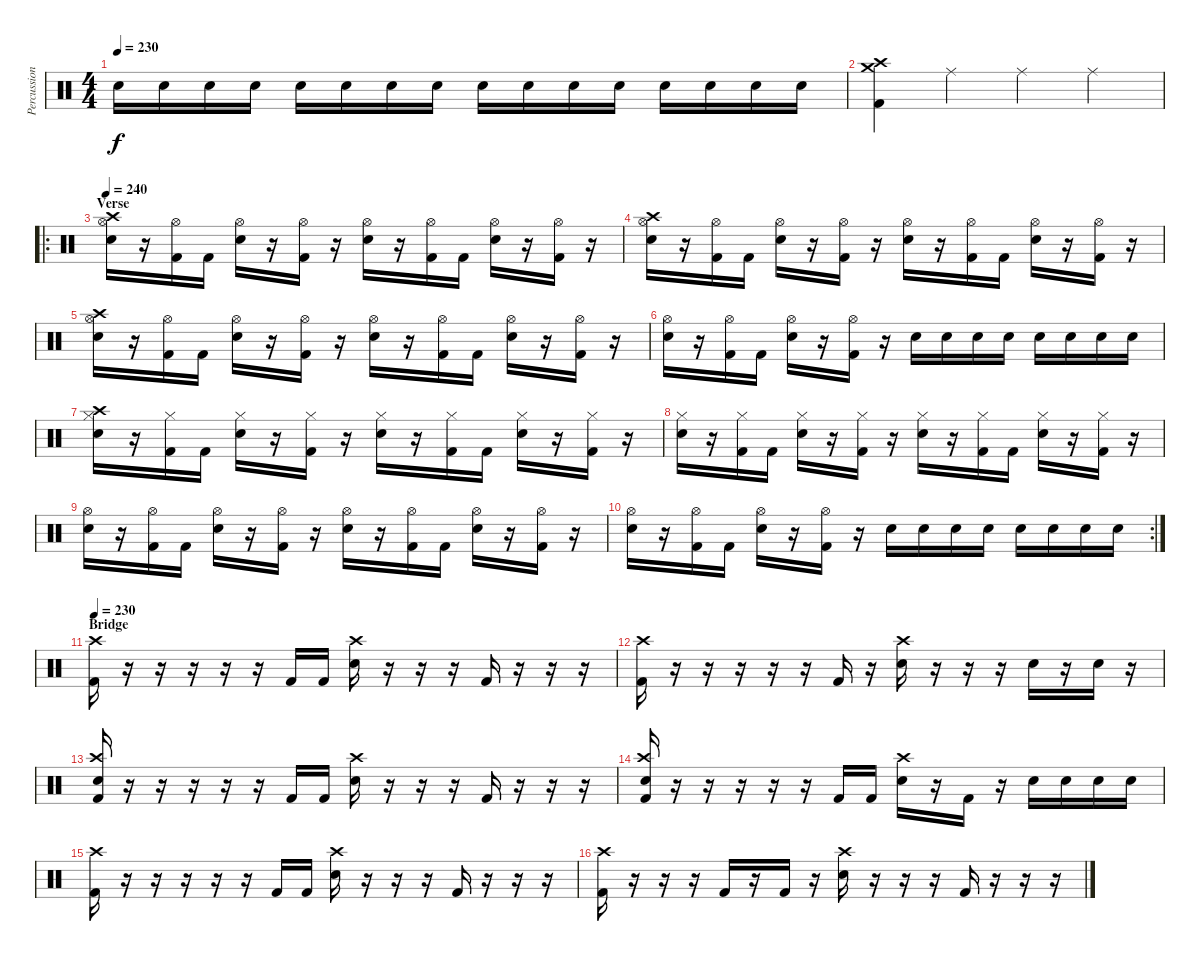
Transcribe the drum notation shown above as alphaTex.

\track ("Percussion" "Percussion") {instrument percussion}
\staff {score}
\articulation defaults
\ts (4 4)
\tempo 230
\clef neutral
\ks c "Electric Snare (hit)".16{dy f} "Electric Snare (hit)".16 "Electric Snare (hit)".16 "Electric Snare (hit)".16 "Electric Snare (hit)".16 "Electric Snare (hit)".16 "Electric Snare (hit)".16 "Electric Snare (hit)".16 "Electric Snare (hit)".16 "Electric Snare (hit)".16 "Electric Snare (hit)".16 "Electric Snare (hit)".16 "Electric Snare (hit)".16 "Electric Snare (hit)".16 "Electric Snare (hit)".16 "Electric Snare (hit)".16
|
("Crash high (hit)" "Crash medium (hit)" "Kick (hit) 2").4 "Ride (middle)".4 "Ride (middle)".4 "Ride (middle)".4 |
\ro
\section ("" "Verse")
\tempo 240
("Crash high (hit)" "Hi-Hat (open)" "Electric Snare (hit)").16 r.16 ("Hi-Hat (open)" "Kick (hit) 2").16 "Kick (hit) 2".16 ("Hi-Hat (open)" "Electric Snare (hit)").16 r.16 ("Hi-Hat (open)" "Kick (hit) 2").16 r.16 ("Hi-Hat (open)" "Electric Snare (hit)").16 r.16 ("Hi-Hat (open)" "Kick (hit) 2").16 "Kick (hit) 2".16 ("Hi-Hat (open)" "Electric Snare (hit)").16 r.16 ("Hi-Hat (open)" "Kick (hit) 2").16 r.16 |
("Crash high (hit)" "Hi-Hat (open)" "Electric Snare (hit)").16 r.16 ("Hi-Hat (open)" "Kick (hit) 2").16 "Kick (hit) 2".16 ("Hi-Hat (open)" "Electric Snare (hit)").16 r.16 ("Hi-Hat (open)" "Kick (hit) 2").16 r.16 ("Hi-Hat (open)" "Electric Snare (hit)").16 r.16 ("Hi-Hat (open)" "Kick (hit) 2").16 "Kick (hit) 2".16 ("Hi-Hat (open)" "Electric Snare (hit)").16 r.16 ("Hi-Hat (open)" "Kick (hit) 2").16 r.16 |
("Crash high (hit)" "Hi-Hat (open)" "Electric Snare (hit)").16 r.16 ("Hi-Hat (open)" "Kick (hit) 2").16 "Kick (hit) 2".16 ("Hi-Hat (open)" "Electric Snare (hit)").16 r.16 ("Hi-Hat (open)" "Kick (hit) 2").16 r.16 ("Hi-Hat (open)" "Electric Snare (hit)").16 r.16 ("Hi-Hat (open)" "Kick (hit) 2").16 "Kick (hit) 2".16 ("Hi-Hat (open)" "Electric Snare (hit)").16 r.16 ("Hi-Hat (open)" "Kick (hit) 2").16 r.16 |
("Hi-Hat (open)" "Electric Snare (hit)").16 r.16 ("Hi-Hat (open)" "Kick (hit) 2").16 "Kick (hit) 2".16 ("Hi-Hat (open)" "Electric Snare (hit)").16 r.16 ("Hi-Hat (open)" "Kick (hit) 2").16 r.16 "Electric Snare (hit)".16 "Electric Snare (hit)".16 "Electric Snare (hit)".16 "Electric Snare (hit)".16 "Electric Snare (hit)".16 "Electric Snare (hit)".16 "Electric Snare (hit)".16 "Electric Snare (hit)".16 |
("Crash high (hit)" "Hi-Hat (closed)" "Electric Snare (hit)").16 r.16 ("Hi-Hat (closed)" "Kick (hit) 2").16 "Kick (hit) 2".16 ("Hi-Hat (closed)" "Electric Snare (hit)").16 r.16 ("Hi-Hat (closed)" "Kick (hit) 2").16 r.16 ("Hi-Hat (closed)" "Electric Snare (hit)").16 r.16 ("Hi-Hat (closed)" "Kick (hit) 2").16 "Kick (hit) 2".16 ("Hi-Hat (closed)" "Electric Snare (hit)").16 r.16 ("Hi-Hat (closed)" "Kick (hit) 2").16 r.16 |
("Hi-Hat (closed)" "Electric Snare (hit)").16 r.16 ("Hi-Hat (closed)" "Kick (hit) 2").16 "Kick (hit) 2".16 ("Hi-Hat (closed)" "Electric Snare (hit)").16 r.16 ("Hi-Hat (closed)" "Kick (hit) 2").16 r.16 ("Hi-Hat (closed)" "Electric Snare (hit)").16 r.16 ("Hi-Hat (closed)" "Kick (hit) 2").16 "Kick (hit) 2".16 ("Hi-Hat (closed)" "Electric Snare (hit)").16 r.16 ("Hi-Hat (closed)" "Kick (hit) 2").16 r.16 |
("Hi-Hat (open)" "Electric Snare (hit)").16 r.16 ("Hi-Hat (open)" "Kick (hit) 2").16 "Kick (hit) 2".16 ("Hi-Hat (open)" "Electric Snare (hit)").16 r.16 ("Hi-Hat (open)" "Kick (hit) 2").16 r.16 ("Hi-Hat (open)" "Electric Snare (hit)").16 r.16 ("Hi-Hat (open)" "Kick (hit) 2").16 "Kick (hit) 2".16 ("Hi-Hat (open)" "Electric Snare (hit)").16 r.16 ("Hi-Hat (open)" "Kick (hit) 2").16 r.16 |
\rc 2
("Hi-Hat (open)" "Electric Snare (hit)").16 r.16 ("Hi-Hat (open)" "Kick (hit) 2").16 "Kick (hit) 2".16 ("Hi-Hat (open)" "Electric Snare (hit)").16 r.16 ("Hi-Hat (open)" "Kick (hit) 2").16 r.16 "Electric Snare (hit)".16 "Electric Snare (hit)".16 "Electric Snare (hit)".16 "Electric Snare (hit)".16 "Electric Snare (hit)".16 "Electric Snare (hit)".16 "Electric Snare (hit)".16 "Electric Snare (hit)".16 |
\section ("" "Bridge")
\tempo 230
("Crash high (hit)" "Kick (hit) 2").16 r.16 r.16 r.16 r.16 r.16 "Kick (hit) 2".16 "Kick (hit) 2".16 ("Crash high (hit)" "Electric Snare (hit)").16 r.16 r.16 r.16 "Kick (hit) 2".16 r.16 r.16 r.16 |
("Crash high (hit)" "Kick (hit) 2").16 r.16 r.16 r.16 r.16 r.16 "Kick (hit) 2".16 r.16 ("Crash high (hit)" "Electric Snare (hit)").16 r.16 r.16 r.16 "Electric Snare (hit)".16 r.16 "Electric Snare (hit)".16 r.16 |
("Crash high (hit)" "Electric Snare (hit)" "Kick (hit) 2").16 r.16 r.16 r.16 r.16 r.16 "Kick (hit) 2".16 "Kick (hit) 2".16 ("Crash high (hit)" "Electric Snare (hit)").16 r.16 r.16 r.16 "Kick (hit) 2".16 r.16 r.16 r.16 |
("Crash high (hit)" "Electric Snare (hit)" "Kick (hit) 2").16 r.16 r.16 r.16 r.16 r.16 "Kick (hit) 2".16 "Kick (hit) 2".16 ("Crash high (hit)" "Electric Snare (hit)").16 r.16 "Kick (hit) 2".16 r.16 "Electric Snare (hit)".16 "Electric Snare (hit)".16 "Electric Snare (hit)".16 "Electric Snare (hit)".16 |
("Crash high (hit)" "Kick (hit) 2").16 r.16 r.16 r.16 r.16 r.16 "Kick (hit) 2".16 "Kick (hit) 2".16 ("Crash high (hit)" "Electric Snare (hit)").16 r.16 r.16 r.16 "Kick (hit) 2".16 r.16 r.16 r.16 |
("Crash high (hit)" "Kick (hit) 2").16 r.16 r.16 r.16 "Kick (hit) 2".16 r.16 "Kick (hit) 2".16 r.16 ("Crash high (hit)" "Electric Snare (hit)").16 r.16 r.16 r.16 "Kick (hit) 2".16 r.16 r.16 r.16
